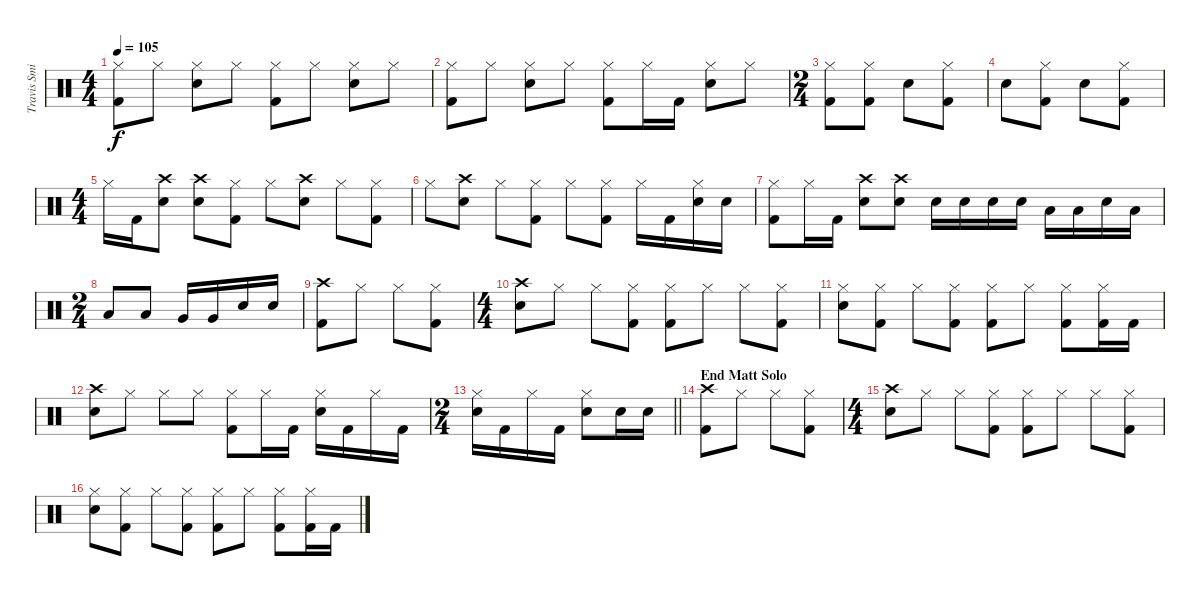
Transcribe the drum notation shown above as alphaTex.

\track ("Travis Smith (Drums)" "Travis Smi") {instrument percussion}
\staff {score}
\articulation defaults
\ts (4 4)
\tempo 105
\clef neutral
\ks c
("Hi-Hat (closed)" "Kick (hit) 2").8{dy f} "Hi-Hat (closed)".8 ("Hi-Hat (closed)" "Electric Snare (hit)").8 "Hi-Hat (closed)".8 ("Hi-Hat (closed)" "Kick (hit) 2").8 "Hi-Hat (closed)".8 ("Hi-Hat (closed)" "Electric Snare (hit)").8 "Hi-Hat (closed)".8 |
("Hi-Hat (closed)" "Kick (hit) 2").8 "Hi-Hat (closed)".8 ("Hi-Hat (closed)" "Electric Snare (hit)").8 "Hi-Hat (closed)".8 ("Hi-Hat (closed)" "Kick (hit) 2").8 "Hi-Hat (closed)".16 "Kick (hit) 2".16 ("Hi-Hat (closed)" "Electric Snare (hit)").8 "Hi-Hat (closed)".8 |
\ts (2 4)
("Hi-Hat (closed)" "Kick (hit) 2").8 ("Hi-Hat (closed)" "Kick (hit) 2").8 "Electric Snare (hit)".8 ("Hi-Hat (closed)" "Kick (hit) 2").8 |
"Electric Snare (hit)".8 ("Hi-Hat (closed)" "Kick (hit) 2").8 "Electric Snare (hit)".8 ("Hi-Hat (closed)" "Kick (hit) 2").8 |
\ts (4 4)
"Hi-Hat (closed)".16 "Kick (hit) 2".16 ("Crash high (hit)" "Electric Snare (hit)").8 ("Crash high (hit)" "Electric Snare (hit)").8 ("Hi-Hat (closed)" "Kick (hit) 2").8 "Hi-Hat (closed)".8 ("Crash high (hit)" "Electric Snare (hit)").8 "Hi-Hat (closed)".8 ("Hi-Hat (closed)" "Kick (hit) 2").8 |
"Hi-Hat (closed)".8 ("Crash high (hit)" "Electric Snare (hit)").8 "Hi-Hat (closed)".8 ("Hi-Hat (closed)" "Kick (hit) 2").8 "Hi-Hat (closed)".8 ("Hi-Hat (closed)" "Kick (hit) 2").8 "Hi-Hat (closed)".16 "Kick (hit) 2".16 ("Hi-Hat (closed)" "Electric Snare (hit)").16 "Electric Snare (hit)".16 |
("Hi-Hat (closed)" "Kick (hit) 2").8 "Hi-Hat (closed)".16 "Kick (hit) 2".16 ("Crash high (hit)" "Electric Snare (hit)").8 ("Crash high (hit)" "Electric Snare (hit)").8 "Electric Snare (hit)".16 "Electric Snare (hit)".16 "Electric Snare (hit)".16 "Electric Snare (hit)".16 "Low Floor Tom (hit)".16 "Low Floor Tom (hit)".16 "Electric Snare (hit)".16 "Low Floor Tom (hit)".16 |
\ts (2 4)
"Low Floor Tom (hit)".8 "Low Floor Tom (hit)".8 "Very Low Tom (hit)".16 "Very Low Tom (hit)".16 "Electric Snare (hit)".16 "Electric Snare (hit)".16 |
("Crash high (hit)" "Kick (hit) 2").8 "Hi-Hat (closed)".8 "Hi-Hat (closed)".8 ("Hi-Hat (closed)" "Kick (hit) 2").8 |
\ts (4 4)
("Crash high (hit)" "Electric Snare (hit)").8 "Hi-Hat (closed)".8 "Hi-Hat (closed)".8 ("Hi-Hat (closed)" "Kick (hit) 2").8 ("Hi-Hat (closed)" "Kick (hit) 2").8 "Hi-Hat (closed)".8 "Hi-Hat (closed)".8 ("Hi-Hat (closed)" "Kick (hit) 2").8 |
("Hi-Hat (closed)" "Electric Snare (hit)").8 ("Hi-Hat (closed)" "Kick (hit) 2").8 "Hi-Hat (closed)".8 ("Hi-Hat (closed)" "Kick (hit) 2").8 ("Hi-Hat (closed)" "Kick (hit) 2").8 "Hi-Hat (closed)".8 ("Hi-Hat (closed)" "Kick (hit) 2").8 ("Hi-Hat (closed)" "Kick (hit) 2").16 "Kick (hit) 2".16 |
("Crash high (hit)" "Electric Snare (hit)").8 "Hi-Hat (closed)".8 "Hi-Hat (closed)".8 "Hi-Hat (closed)".8 ("Hi-Hat (closed)" "Kick (hit) 2").8 "Hi-Hat (closed)".16 "Kick (hit) 2".16 ("Hi-Hat (closed)" "Electric Snare (hit)").16 "Kick (hit) 2".16 "Hi-Hat (closed)".16 "Kick (hit) 2".16 |
\ts (2 4)
\barLineRight lightlight
("Hi-Hat (closed)" "Electric Snare (hit)").16 "Kick (hit) 2".16 "Hi-Hat (closed)".16 "Kick (hit) 2".16 ("Hi-Hat (closed)" "Electric Snare (hit)").8 "Electric Snare (hit)".16 "Electric Snare (hit)".16 |
\section ("" "End Matt Solo")
("Crash high (hit)" "Kick (hit) 2").8 "Hi-Hat (closed)".8 "Hi-Hat (closed)".8 ("Hi-Hat (closed)" "Kick (hit) 2").8 |
\ts (4 4)
("Crash high (hit)" "Electric Snare (hit)").8 "Hi-Hat (closed)".8 "Hi-Hat (closed)".8 ("Hi-Hat (closed)" "Kick (hit) 2").8 ("Hi-Hat (closed)" "Kick (hit) 2").8 "Hi-Hat (closed)".8 "Hi-Hat (closed)".8 ("Hi-Hat (closed)" "Kick (hit) 2").8 |
("Hi-Hat (closed)" "Electric Snare (hit)").8 ("Hi-Hat (closed)" "Kick (hit) 2").8 "Hi-Hat (closed)".8 ("Hi-Hat (closed)" "Kick (hit) 2").8 ("Hi-Hat (closed)" "Kick (hit) 2").8 "Hi-Hat (closed)".8 ("Hi-Hat (closed)" "Kick (hit) 2").8 ("Hi-Hat (closed)" "Kick (hit) 2").16 "Kick (hit) 2".16
